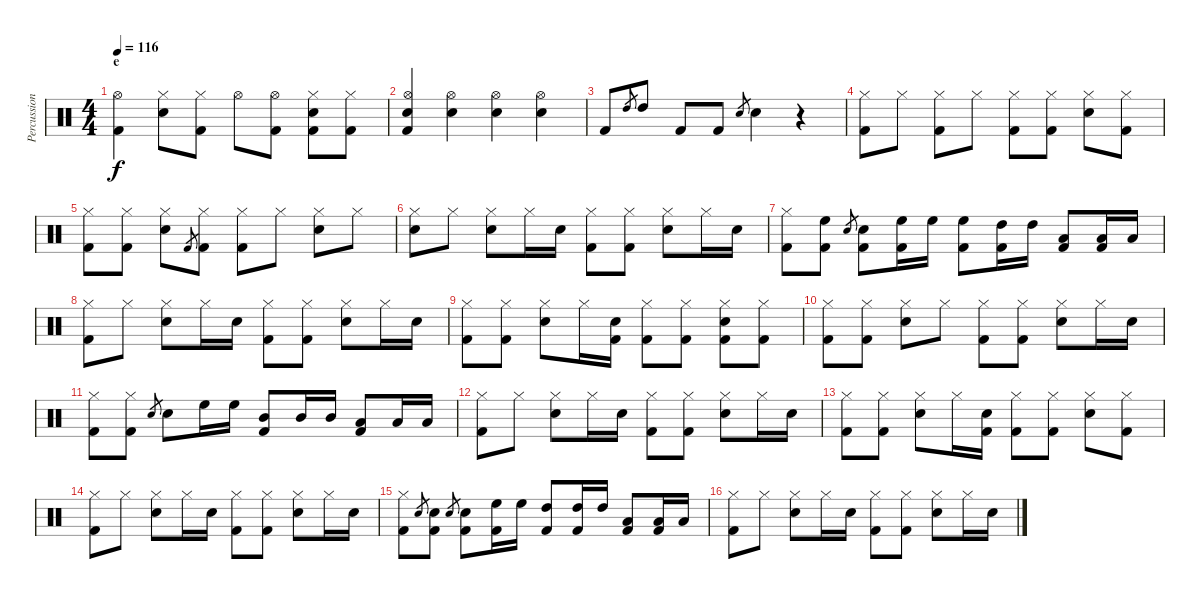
\track ("Percussion" "Percussion") {instrument percussion}
\staff {score}
\articulation defaults
\ts (4 4)
\section ("" "e")
\tempo 116
\clef neutral
\ks c
("Kick (hit) 2" "Hi-Hat (open)").4{dy f} ("Snare (hit) 2" "Hi-Hat (closed)").8 ("Kick (hit) 2" "Hi-Hat (closed)").8 "Hi-Hat (open)".8 ("Kick (hit) 2" "Hi-Hat (open)").8 ("Kick (hit) 2" "Snare (hit) 2" "Hi-Hat (closed)").8 ("Kick (hit) 2" "Hi-Hat (closed)").8 |
("Kick (hit) 2" "Snare (hit) 2" "Hi-Hat (open)").4 ("Snare (hit) 2" "Hi-Hat (open)").4 ("Snare (hit) 2" "Hi-Hat (open)").4 ("Snare (hit) 2" "Hi-Hat (open)").4 |
"Kick (hit) 2".8 "High Tom (hit)".8{gr} "High Tom (hit)".8 "Kick (hit) 2".8 "Kick (hit) 2".8 "Snare (hit) 2".8{gr} "Snare (hit) 2".4 r.4 |
("Kick (hit) 2" "Hi-Hat (closed)").8 "Hi-Hat (closed)".8 ("Kick (hit) 2" "Hi-Hat (closed)").8 "Hi-Hat (closed)".8 ("Kick (hit) 2" "Hi-Hat (closed)").8 ("Kick (hit) 2" "Hi-Hat (closed)").8 ("Snare (hit) 2" "Hi-Hat (closed)").8 ("Kick (hit) 2" "Hi-Hat (closed)").8 |
("Kick (hit) 2" "Hi-Hat (closed)").8 ("Kick (hit) 2" "Hi-Hat (closed)").8 ("Snare (hit) 2" "Hi-Hat (closed)").8 "Kick (hit) 2".8{gr} ("Kick (hit) 2" "Hi-Hat (closed)").8 ("Kick (hit) 2" "Hi-Hat (closed)").8 "Hi-Hat (closed)".8 ("Snare (hit) 2" "Hi-Hat (closed)").8 "Hi-Hat (closed)".8 |
("Snare (hit) 2" "Hi-Hat (closed)").8 "Hi-Hat (closed)".8 ("Snare (hit) 2" "Hi-Hat (closed)").8 "Hi-Hat (closed)".16 "Snare (hit) 2".16 ("Kick (hit) 2" "Hi-Hat (closed)").8 ("Kick (hit) 2" "Hi-Hat (closed)").8 ("Snare (hit) 2" "Hi-Hat (closed)").8 "Hi-Hat (closed)".16 "Snare (hit) 2".16 |
("Kick (hit) 2" "Hi-Hat (closed)").8 ("Kick (hit) 2" "High Floor Tom (hit)").8 "Snare (hit) 2".8{gr} ("Kick (hit) 2" "Snare (hit) 2").8 ("Kick (hit) 2" "High Floor Tom (hit)").16 "High Floor Tom (hit)".16 ("Kick (hit) 2" "High Floor Tom (hit)").8 ("Kick (hit) 2" "High Tom (hit)").16 "High Tom (hit)".16 ("Kick (hit) 2" "Low Tom (hit)").8 ("Kick (hit) 2" "Low Tom (hit)").16 "Low Tom (hit)".16 |
("Kick (hit) 2" "Hi-Hat (closed)").8 "Hi-Hat (closed)".8 ("Snare (hit) 2" "Hi-Hat (closed)").8 "Hi-Hat (closed)".16 "Snare (hit) 2".16 ("Kick (hit) 2" "Hi-Hat (closed)").8 ("Kick (hit) 2" "Hi-Hat (closed)").8 ("Snare (hit) 2" "Hi-Hat (closed)").8 "Hi-Hat (closed)".16 "Snare (hit) 2".16 |
("Kick (hit) 2" "Hi-Hat (closed)").8 ("Kick (hit) 2" "Hi-Hat (closed)").8 ("Snare (hit) 2" "Hi-Hat (closed)").8 "Hi-Hat (closed)".16 ("Kick (hit) 2" "Snare (hit) 2").16 ("Kick (hit) 2" "Hi-Hat (closed)").8 ("Kick (hit) 2" "Hi-Hat (closed)").8 ("Kick (hit) 2" "Snare (hit) 2" "Hi-Hat (closed)").8 ("Kick (hit) 2" "Hi-Hat (closed)").8 |
("Kick (hit) 2" "Hi-Hat (closed)").8 ("Kick (hit) 2" "Hi-Hat (closed)").8 ("Snare (hit) 2" "Hi-Hat (closed)").8 "Hi-Hat (closed)".8 ("Kick (hit) 2" "Hi-Hat (closed)").8 ("Kick (hit) 2" "Hi-Hat (closed)").8 ("Snare (hit) 2" "Hi-Hat (closed)").8 "Hi-Hat (closed)".16 "Snare (hit) 2".16 |
("Kick (hit) 2" "Hi-Hat (closed)").8 ("Kick (hit) 2" "Hi-Hat (closed)").8 "Snare (hit) 2".8{gr} "Snare (hit) 2".8 "High Floor Tom (hit)".16 "High Floor Tom (hit)".16 ("Kick (hit) 2" "Mid Tom (hit)").8 "Mid Tom (hit)".16 "Mid Tom (hit)".16 ("Kick (hit) 2" "Low Tom (hit)").8 "Low Tom (hit)".16 "Low Tom (hit)".16 |
("Kick (hit) 2" "Hi-Hat (closed)").8 "Hi-Hat (closed)".8 ("Snare (hit) 2" "Hi-Hat (closed)").8 "Hi-Hat (closed)".16 "Snare (hit) 2".16 ("Kick (hit) 2" "Hi-Hat (closed)").8 ("Kick (hit) 2" "Hi-Hat (closed)").8 ("Snare (hit) 2" "Hi-Hat (closed)").8 "Hi-Hat (closed)".16 "Snare (hit) 2".16 |
("Kick (hit) 2" "Hi-Hat (closed)").8 ("Kick (hit) 2" "Hi-Hat (closed)").8 ("Snare (hit) 2" "Hi-Hat (closed)").8 "Hi-Hat (closed)".16 ("Kick (hit) 2" "Snare (hit) 2").16 ("Kick (hit) 2" "Hi-Hat (closed)").8 ("Kick (hit) 2" "Hi-Hat (closed)").8 ("Snare (hit) 2" "Hi-Hat (closed)").8 ("Kick (hit) 2" "Hi-Hat (closed)").8 |
("Kick (hit) 2" "Hi-Hat (closed)").8 "Hi-Hat (closed)".8 ("Snare (hit) 2" "Hi-Hat (closed)").8 "Hi-Hat (closed)".16 "Snare (hit) 2".16 ("Kick (hit) 2" "Hi-Hat (closed)").8 ("Kick (hit) 2" "Hi-Hat (closed)").8 ("Snare (hit) 2" "Hi-Hat (closed)").8 "Hi-Hat (closed)".16 "Snare (hit) 2".16 |
("Kick (hit) 2" "Hi-Hat (closed)").8 "Snare (hit) 2".8{gr} ("Kick (hit) 2" "Snare (hit) 2").8 "Snare (hit) 2".8{gr} ("Kick (hit) 2" "Snare (hit) 2").8 ("Kick (hit) 2" "High Floor Tom (hit)").16 "High Floor Tom (hit)".16 ("Kick (hit) 2" "High Tom (hit)").8 ("Kick (hit) 2" "High Tom (hit)").16 "High Tom (hit)".16 ("Kick (hit) 2" "Low Tom (hit)").8 ("Kick (hit) 2" "Low Tom (hit)").16 "Low Tom (hit)".16 |
("Kick (hit) 2" "Hi-Hat (closed)").8 "Hi-Hat (closed)".8 ("Snare (hit) 2" "Hi-Hat (closed)").8 "Hi-Hat (closed)".16 "Snare (hit) 2".16 ("Kick (hit) 2" "Hi-Hat (closed)").8 ("Kick (hit) 2" "Hi-Hat (closed)").8 ("Snare (hit) 2" "Hi-Hat (closed)").8 "Hi-Hat (closed)".16 "Snare (hit) 2".16
